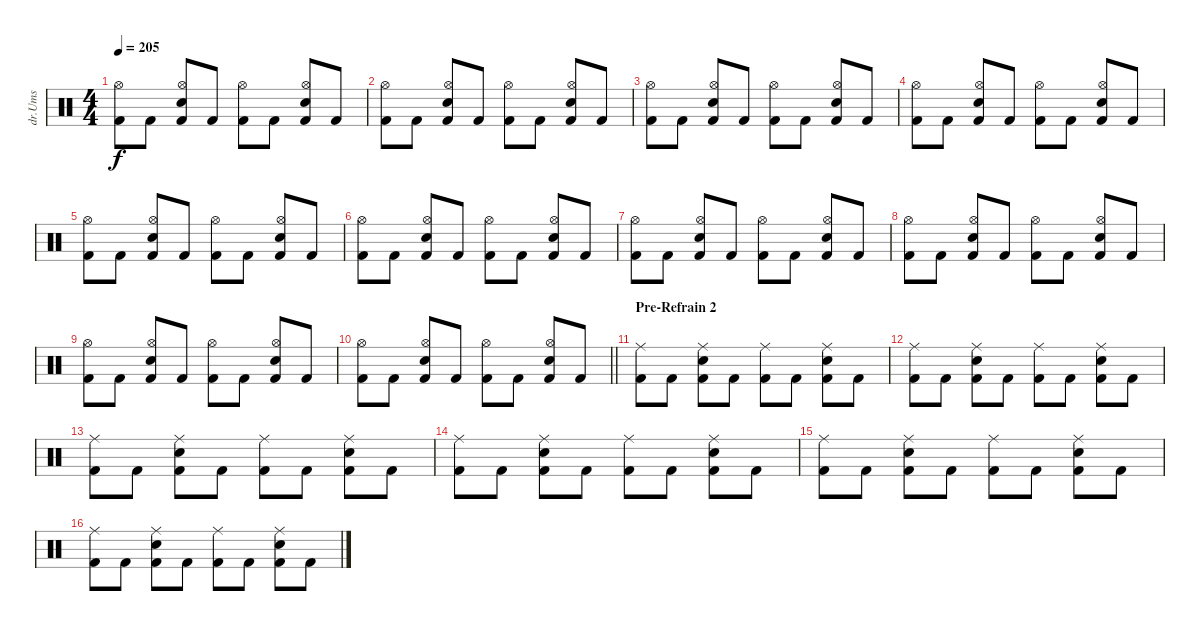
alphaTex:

\track ("dr.Ums" "dr.Ums") {instrument percussion}
\staff {score}
\articulation defaults
\ts (4 4)
\tempo 205
\clef neutral
\ks c
("Kick (hit) 2" "Hi-Hat (open)").8{dy f} "Kick (hit) 2".8 ("Kick (hit) 2" "Hi-Hat (open)" "Snare (hit) 2").8 "Kick (hit) 2".8 ("Kick (hit) 2" "Hi-Hat (open)").8 "Kick (hit) 2".8 ("Kick (hit) 2" "Hi-Hat (open)" "Snare (hit) 2").8 "Kick (hit) 2".8 |
("Kick (hit) 2" "Hi-Hat (open)").8 "Kick (hit) 2".8 ("Kick (hit) 2" "Hi-Hat (open)" "Snare (hit) 2").8 "Kick (hit) 2".8 ("Kick (hit) 2" "Hi-Hat (open)").8 "Kick (hit) 2".8 ("Kick (hit) 2" "Hi-Hat (open)" "Snare (hit) 2").8 "Kick (hit) 2".8 |
("Kick (hit) 2" "Hi-Hat (open)").8 "Kick (hit) 2".8 ("Kick (hit) 2" "Hi-Hat (open)" "Snare (hit) 2").8 "Kick (hit) 2".8 ("Kick (hit) 2" "Hi-Hat (open)").8 "Kick (hit) 2".8 ("Kick (hit) 2" "Hi-Hat (open)" "Snare (hit) 2").8 "Kick (hit) 2".8 |
("Kick (hit) 2" "Hi-Hat (open)").8 "Kick (hit) 2".8 ("Kick (hit) 2" "Hi-Hat (open)" "Snare (hit) 2").8 "Kick (hit) 2".8 ("Kick (hit) 2" "Hi-Hat (open)").8 "Kick (hit) 2".8 ("Kick (hit) 2" "Hi-Hat (open)" "Snare (hit) 2").8 "Kick (hit) 2".8 |
("Kick (hit) 2" "Hi-Hat (open)").8 "Kick (hit) 2".8 ("Kick (hit) 2" "Hi-Hat (open)" "Snare (hit) 2").8 "Kick (hit) 2".8 ("Kick (hit) 2" "Hi-Hat (open)").8 "Kick (hit) 2".8 ("Kick (hit) 2" "Hi-Hat (open)" "Snare (hit) 2").8 "Kick (hit) 2".8 |
("Kick (hit) 2" "Hi-Hat (open)").8 "Kick (hit) 2".8 ("Kick (hit) 2" "Hi-Hat (open)" "Snare (hit) 2").8 "Kick (hit) 2".8 ("Kick (hit) 2" "Hi-Hat (open)").8 "Kick (hit) 2".8 ("Kick (hit) 2" "Hi-Hat (open)" "Snare (hit) 2").8 "Kick (hit) 2".8 |
("Kick (hit) 2" "Hi-Hat (open)").8 "Kick (hit) 2".8 ("Kick (hit) 2" "Hi-Hat (open)" "Snare (hit) 2").8 "Kick (hit) 2".8 ("Kick (hit) 2" "Hi-Hat (open)").8 "Kick (hit) 2".8 ("Kick (hit) 2" "Hi-Hat (open)" "Snare (hit) 2").8 "Kick (hit) 2".8 |
("Kick (hit) 2" "Hi-Hat (open)").8 "Kick (hit) 2".8 ("Kick (hit) 2" "Hi-Hat (open)" "Snare (hit) 2").8 "Kick (hit) 2".8 ("Kick (hit) 2" "Hi-Hat (open)").8 "Kick (hit) 2".8 ("Kick (hit) 2" "Hi-Hat (open)" "Snare (hit) 2").8 "Kick (hit) 2".8 |
("Kick (hit) 2" "Hi-Hat (open)").8 "Kick (hit) 2".8 ("Kick (hit) 2" "Hi-Hat (open)" "Snare (hit) 2").8 "Kick (hit) 2".8 ("Kick (hit) 2" "Hi-Hat (open)").8 "Kick (hit) 2".8 ("Kick (hit) 2" "Hi-Hat (open)" "Snare (hit) 2").8 "Kick (hit) 2".8 |
\barLineRight lightlight
("Kick (hit) 2" "Hi-Hat (open)").8 "Kick (hit) 2".8 ("Kick (hit) 2" "Hi-Hat (open)" "Snare (hit) 2").8 "Kick (hit) 2".8 ("Kick (hit) 2" "Hi-Hat (open)").8 "Kick (hit) 2".8 ("Kick (hit) 2" "Hi-Hat (open)" "Snare (hit) 2").8 "Kick (hit) 2".8 |
\section ("" "Pre-Refrain 2")
("Ride (middle)" "Kick (hit) 2").8 "Kick (hit) 2".8 ("Ride (middle)" "Snare (hit) 2" "Kick (hit) 2").8 "Kick (hit) 2".8 ("Ride (middle)" "Kick (hit) 2").8 "Kick (hit) 2".8 ("Ride (middle)" "Snare (hit) 2" "Kick (hit) 2").8 "Kick (hit) 2".8 |
("Ride (middle)" "Kick (hit) 2").8 "Kick (hit) 2".8 ("Ride (middle)" "Snare (hit) 2" "Kick (hit) 2").8 "Kick (hit) 2".8 ("Ride (middle)" "Kick (hit) 2").8 "Kick (hit) 2".8 ("Ride (middle)" "Snare (hit) 2" "Kick (hit) 2").8 "Kick (hit) 2".8 |
("Ride (middle)" "Kick (hit) 2").8 "Kick (hit) 2".8 ("Ride (middle)" "Snare (hit) 2" "Kick (hit) 2").8 "Kick (hit) 2".8 ("Ride (middle)" "Kick (hit) 2").8 "Kick (hit) 2".8 ("Ride (middle)" "Snare (hit) 2" "Kick (hit) 2").8 "Kick (hit) 2".8 |
("Ride (middle)" "Kick (hit) 2").8 "Kick (hit) 2".8 ("Ride (middle)" "Snare (hit) 2" "Kick (hit) 2").8 "Kick (hit) 2".8 ("Ride (middle)" "Kick (hit) 2").8 "Kick (hit) 2".8 ("Ride (middle)" "Snare (hit) 2" "Kick (hit) 2").8 "Kick (hit) 2".8 |
("Ride (middle)" "Kick (hit) 2").8 "Kick (hit) 2".8 ("Ride (middle)" "Snare (hit) 2" "Kick (hit) 2").8 "Kick (hit) 2".8 ("Ride (middle)" "Kick (hit) 2").8 "Kick (hit) 2".8 ("Ride (middle)" "Snare (hit) 2" "Kick (hit) 2").8 "Kick (hit) 2".8 |
("Ride (middle)" "Kick (hit) 2").8 "Kick (hit) 2".8 ("Ride (middle)" "Snare (hit) 2" "Kick (hit) 2").8 "Kick (hit) 2".8 ("Ride (middle)" "Kick (hit) 2").8 "Kick (hit) 2".8 ("Ride (middle)" "Snare (hit) 2" "Kick (hit) 2").8 "Kick (hit) 2".8
